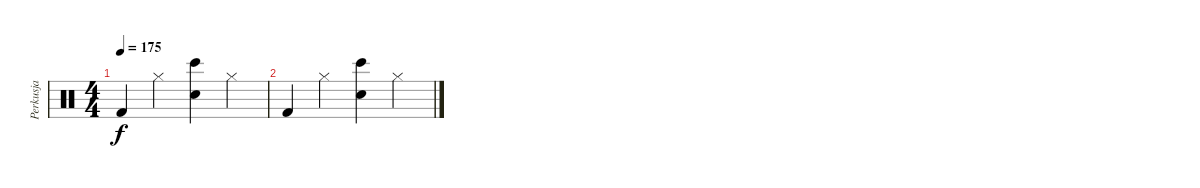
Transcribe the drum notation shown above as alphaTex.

\track ("Perkusja" "Perkusja") {instrument percussion}
\staff {score}
\articulation defaults
\ts (4 4)
\tempo 175
\clef neutral
\ks c "Kick (hit) 2".4{dy f} "Hi-Hat (closed)".4
("Snare (hit) 2" "Bongo High (hit)").4 "Hi-Hat (closed)".4 |
"Kick (hit) 2".4 "Hi-Hat (closed)".4 ("Snare (hit) 2" "Bongo High (hit)").4 "Hi-Hat (closed)".4
